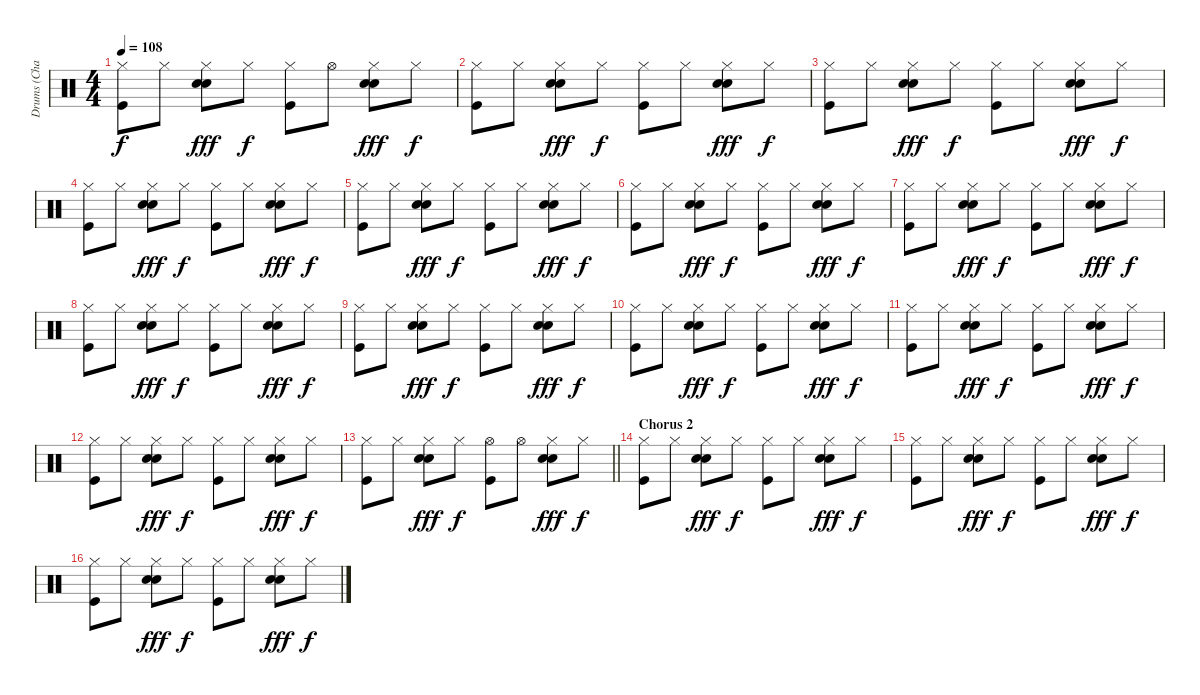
\track ("Drums (Charlie)" "Drums (Cha") {instrument percussion}
\staff {score}
\articulation defaults
\ts (4 4)
\tempo 108
\clef neutral
\ks c
("Hi-Hat (closed)" "Kick (hit)").8{dy f} "Hi-Hat (closed)".8 ("Hi-Hat (closed)" "Snare (hit) 2" "Electric Snare (hit)").8{dy fff} "Hi-Hat (closed)".8{dy f} ("Hi-Hat (closed)" "Kick (hit)").8 "Hi-Hat (open)".8 ("Hi-Hat (closed)" "Snare (hit) 2" "Electric Snare (hit)").8{dy fff} "Hi-Hat (closed)".8{dy f} |
("Hi-Hat (closed)" "Kick (hit)").8 "Hi-Hat (closed)".8 ("Hi-Hat (closed)" "Snare (hit) 2" "Electric Snare (hit)").8{dy fff} "Hi-Hat (closed)".8{dy f} ("Hi-Hat (closed)" "Kick (hit)").8 "Hi-Hat (closed)".8 ("Hi-Hat (closed)" "Snare (hit) 2" "Electric Snare (hit)").8{dy fff} "Hi-Hat (closed)".8{dy f} |
("Hi-Hat (closed)" "Kick (hit)").8 "Hi-Hat (closed)".8 ("Hi-Hat (closed)" "Snare (hit) 2" "Electric Snare (hit)").8{dy fff} "Hi-Hat (closed)".8{dy f} ("Hi-Hat (closed)" "Kick (hit)").8 "Hi-Hat (closed)".8 ("Hi-Hat (closed)" "Snare (hit) 2" "Electric Snare (hit)").8{dy fff} "Hi-Hat (closed)".8{dy f} |
("Hi-Hat (closed)" "Kick (hit)").8 "Hi-Hat (closed)".8 ("Hi-Hat (closed)" "Snare (hit) 2" "Electric Snare (hit)").8{dy fff} "Hi-Hat (closed)".8{dy f} ("Hi-Hat (closed)" "Kick (hit)").8 "Hi-Hat (closed)".8 ("Hi-Hat (closed)" "Snare (hit) 2" "Electric Snare (hit)").8{dy fff} "Hi-Hat (closed)".8{dy f} |
("Hi-Hat (closed)" "Kick (hit)").8 "Hi-Hat (closed)".8 ("Hi-Hat (closed)" "Snare (hit) 2" "Electric Snare (hit)").8{dy fff} "Hi-Hat (closed)".8{dy f} ("Hi-Hat (closed)" "Kick (hit)").8 "Hi-Hat (closed)".8 ("Hi-Hat (closed)" "Snare (hit) 2" "Electric Snare (hit)").8{dy fff} "Hi-Hat (closed)".8{dy f} |
("Hi-Hat (closed)" "Kick (hit)").8 "Hi-Hat (closed)".8 ("Hi-Hat (closed)" "Snare (hit) 2" "Electric Snare (hit)").8{dy fff} "Hi-Hat (closed)".8{dy f} ("Hi-Hat (closed)" "Kick (hit)").8 "Hi-Hat (closed)".8 ("Hi-Hat (closed)" "Snare (hit) 2" "Electric Snare (hit)").8{dy fff} "Hi-Hat (closed)".8{dy f} |
("Hi-Hat (closed)" "Kick (hit)").8 "Hi-Hat (closed)".8 ("Hi-Hat (closed)" "Snare (hit) 2" "Electric Snare (hit)").8{dy fff} "Hi-Hat (closed)".8{dy f} ("Hi-Hat (closed)" "Kick (hit)").8 "Hi-Hat (closed)".8 ("Hi-Hat (closed)" "Snare (hit) 2" "Electric Snare (hit)").8{dy fff} "Hi-Hat (closed)".8{dy f} |
("Hi-Hat (closed)" "Kick (hit)").8 "Hi-Hat (closed)".8 ("Hi-Hat (closed)" "Snare (hit) 2" "Electric Snare (hit)").8{dy fff} "Hi-Hat (closed)".8{dy f} ("Hi-Hat (closed)" "Kick (hit)").8 "Hi-Hat (closed)".8 ("Hi-Hat (closed)" "Snare (hit) 2" "Electric Snare (hit)").8{dy fff} "Hi-Hat (closed)".8{dy f} |
("Hi-Hat (closed)" "Kick (hit)").8 "Hi-Hat (closed)".8 ("Hi-Hat (closed)" "Snare (hit) 2" "Electric Snare (hit)").8{dy fff} "Hi-Hat (closed)".8{dy f} ("Hi-Hat (closed)" "Kick (hit)").8 "Hi-Hat (closed)".8 ("Hi-Hat (closed)" "Snare (hit) 2" "Electric Snare (hit)").8{dy fff} "Hi-Hat (closed)".8{dy f} |
("Hi-Hat (closed)" "Kick (hit)").8 "Hi-Hat (closed)".8 ("Hi-Hat (closed)" "Snare (hit) 2" "Electric Snare (hit)").8{dy fff} "Hi-Hat (closed)".8{dy f} ("Hi-Hat (closed)" "Kick (hit)").8 "Hi-Hat (closed)".8 ("Hi-Hat (closed)" "Snare (hit) 2" "Electric Snare (hit)").8{dy fff} "Hi-Hat (closed)".8{dy f} |
("Hi-Hat (closed)" "Kick (hit)").8 "Hi-Hat (closed)".8 ("Hi-Hat (closed)" "Snare (hit) 2" "Electric Snare (hit)").8{dy fff} "Hi-Hat (closed)".8{dy f} ("Hi-Hat (closed)" "Kick (hit)").8 "Hi-Hat (closed)".8 ("Hi-Hat (closed)" "Snare (hit) 2" "Electric Snare (hit)").8{dy fff} "Hi-Hat (closed)".8{dy f} |
("Hi-Hat (closed)" "Kick (hit)").8 "Hi-Hat (closed)".8 ("Hi-Hat (closed)" "Snare (hit) 2" "Electric Snare (hit)").8{dy fff} "Hi-Hat (closed)".8{dy f} ("Hi-Hat (closed)" "Kick (hit)").8 "Hi-Hat (closed)".8 ("Hi-Hat (closed)" "Snare (hit) 2" "Electric Snare (hit)").8{dy fff} "Hi-Hat (closed)".8{dy f} |
\barLineRight lightlight
("Hi-Hat (closed)" "Kick (hit)").8 "Hi-Hat (closed)".8 ("Hi-Hat (closed)" "Snare (hit) 2" "Electric Snare (hit)").8{dy fff} "Hi-Hat (closed)".8{dy f} ("Hi-Hat (open)" "Kick (hit)").8 "Hi-Hat (open)".8 ("Hi-Hat (closed)" "Snare (hit) 2" "Electric Snare (hit)").8{dy fff} "Hi-Hat (closed)".8{dy f} |
\section ("" "Chorus 2")
("Hi-Hat (closed)" "Kick (hit)").8 "Hi-Hat (closed)".8 ("Hi-Hat (closed)" "Snare (hit) 2" "Electric Snare (hit)").8{dy fff} "Hi-Hat (closed)".8{dy f} ("Hi-Hat (closed)" "Kick (hit)").8 "Hi-Hat (closed)".8 ("Hi-Hat (closed)" "Snare (hit) 2" "Electric Snare (hit)").8{dy fff} "Hi-Hat (closed)".8{dy f} |
("Hi-Hat (closed)" "Kick (hit)").8 "Hi-Hat (closed)".8 ("Hi-Hat (closed)" "Snare (hit) 2" "Electric Snare (hit)").8{dy fff} "Hi-Hat (closed)".8{dy f} ("Hi-Hat (closed)" "Kick (hit)").8 "Hi-Hat (closed)".8 ("Hi-Hat (closed)" "Snare (hit) 2" "Electric Snare (hit)").8{dy fff} "Hi-Hat (closed)".8{dy f} |
("Hi-Hat (closed)" "Kick (hit)").8 "Hi-Hat (closed)".8 ("Hi-Hat (closed)" "Snare (hit) 2" "Electric Snare (hit)").8{dy fff} "Hi-Hat (closed)".8{dy f} ("Hi-Hat (closed)" "Kick (hit)").8 "Hi-Hat (closed)".8 ("Hi-Hat (closed)" "Snare (hit) 2" "Electric Snare (hit)").8{dy fff} "Hi-Hat (closed)".8{dy f}
